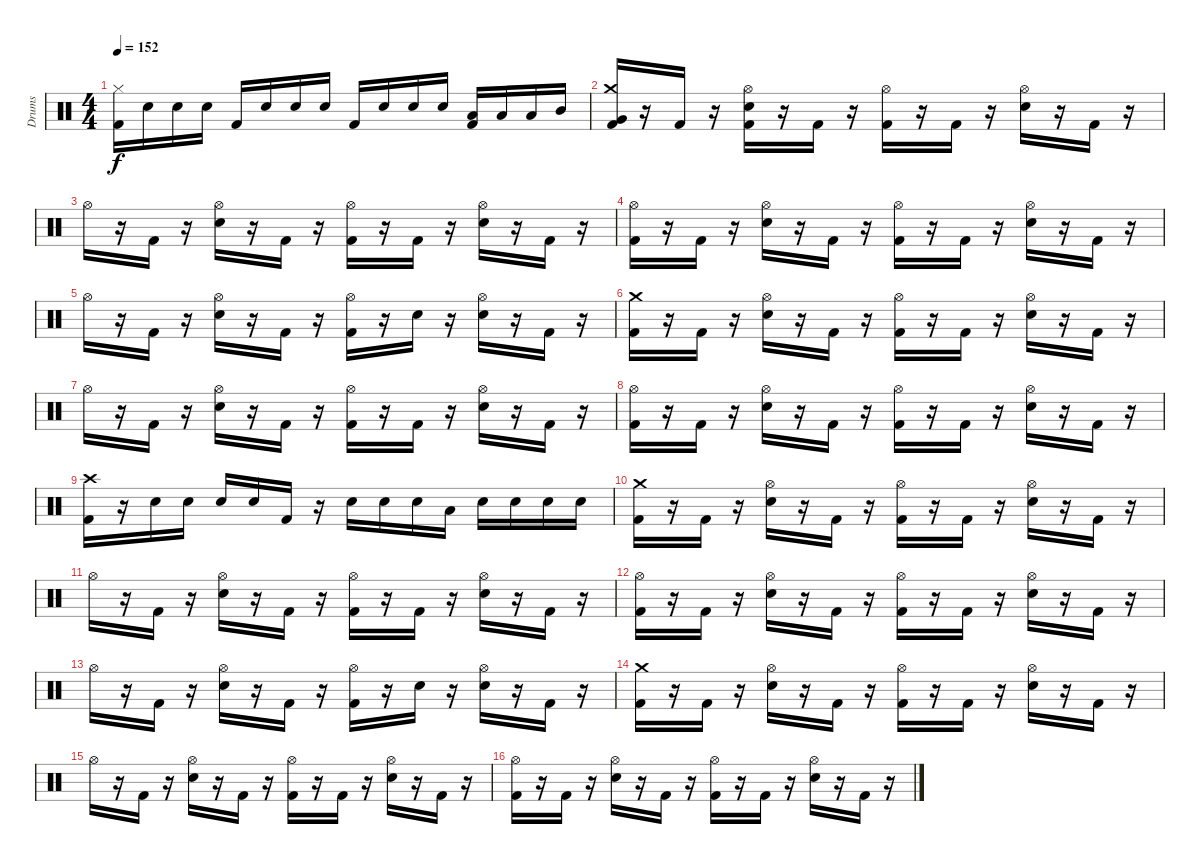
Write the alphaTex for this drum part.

\track ("Drums" "Drums") {instrument percussion}
\staff {score}
\articulation defaults
\ts (4 4)
\tempo 152
\clef neutral
\ks c
("Hi-Hat (closed)" "Kick (hit) 2").16{dy f} "Snare (hit) 2".16 "Snare (hit) 2".16 "Snare (hit) 2".16 "Kick (hit) 2".16 "Snare (hit) 2".16 "Snare (hit) 2".16 "Snare (hit) 2".16 "Kick (hit) 2".16 "Snare (hit) 2".16 "Snare (hit) 2".16 "Snare (hit) 2".16 ("Low Tom (hit)" "Kick (hit) 2").16 "Low Tom (hit)".16 "Low Tom (hit)".16 "Mid Tom (hit)".16 |
("Crash medium (hit)" "Very Low Tom (hit)" "Kick (hit) 2").16 r.16 "Kick (hit) 2".16 r.16 ("Hi-Hat (open)" "Snare (hit) 2" "Kick (hit) 2").16 r.16 "Kick (hit) 2".16 r.16 ("Hi-Hat (open)" "Kick (hit) 2").16 r.16 "Kick (hit) 2".16 r.16 ("Hi-Hat (open)" "Snare (hit) 2").16 r.16 "Kick (hit) 2".16 r.16 |
"Hi-Hat (open)".16 r.16 "Kick (hit) 2".16 r.16 ("Hi-Hat (open)" "Snare (hit) 2").16 r.16 "Kick (hit) 2".16 r.16 ("Hi-Hat (open)" "Kick (hit) 2").16 r.16 "Kick (hit) 2".16 r.16 ("Hi-Hat (open)" "Snare (hit) 2").16 r.16 "Kick (hit) 2".16 r.16 |
("Hi-Hat (open)" "Kick (hit) 2").16 r.16 "Kick (hit) 2".16 r.16 ("Hi-Hat (open)" "Snare (hit) 2").16 r.16 "Kick (hit) 2".16 r.16 ("Hi-Hat (open)" "Kick (hit) 2").16 r.16 "Kick (hit) 2".16 r.16 ("Hi-Hat (open)" "Snare (hit) 2").16 r.16 "Kick (hit) 2".16 r.16 |
"Hi-Hat (open)".16 r.16 "Kick (hit) 2".16 r.16 ("Hi-Hat (open)" "Snare (hit) 2").16 r.16 "Kick (hit) 2".16 r.16 ("Hi-Hat (open)" "Kick (hit) 2").16 r.16 "Snare (hit) 2".16 r.16 ("Hi-Hat (open)" "Snare (hit) 2").16 r.16 "Kick (hit) 2".16 r.16 |
("Crash medium (hit)" "Kick (hit) 2").16 r.16 "Kick (hit) 2".16 r.16 ("Hi-Hat (open)" "Snare (hit) 2").16 r.16 "Kick (hit) 2".16 r.16 ("Hi-Hat (open)" "Kick (hit) 2").16 r.16 "Kick (hit) 2".16 r.16 ("Hi-Hat (open)" "Snare (hit) 2").16 r.16 "Kick (hit) 2".16 r.16 |
"Hi-Hat (open)".16 r.16 "Kick (hit) 2".16 r.16 ("Hi-Hat (open)" "Snare (hit) 2").16 r.16 "Kick (hit) 2".16 r.16 ("Hi-Hat (open)" "Kick (hit) 2").16 r.16 "Kick (hit) 2".16 r.16 ("Hi-Hat (open)" "Snare (hit) 2").16 r.16 "Kick (hit) 2".16 r.16 |
("Hi-Hat (open)" "Kick (hit) 2").16 r.16 "Kick (hit) 2".16 r.16 ("Hi-Hat (open)" "Snare (hit) 2").16 r.16 "Kick (hit) 2".16 r.16 ("Hi-Hat (open)" "Kick (hit) 2").16 r.16 "Kick (hit) 2".16 r.16 ("Hi-Hat (open)" "Snare (hit) 2").16 r.16 "Kick (hit) 2".16 r.16 |
("Crash high (hit)" "Kick (hit) 2").16 r.16 "Snare (hit) 2".16 "Snare (hit) 2".16 "Snare (hit) 2".16 "Snare (hit) 2".16 "Kick (hit) 2".16 r.16 "Snare (hit) 2".16 "Snare (hit) 2".16 "Snare (hit) 2".16 "Low Tom (hit)".16 "Snare (hit) 2".16 "Snare (hit) 2".16 "Snare (hit) 2".16 "Snare (hit) 2".16 |
("Crash medium (hit)" "Kick (hit) 2").16 r.16 "Kick (hit) 2".16 r.16 ("Hi-Hat (open)" "Snare (hit) 2").16 r.16 "Kick (hit) 2".16 r.16 ("Hi-Hat (open)" "Kick (hit) 2").16 r.16 "Kick (hit) 2".16 r.16 ("Hi-Hat (open)" "Snare (hit) 2").16 r.16 "Kick (hit) 2".16 r.16 |
"Hi-Hat (open)".16 r.16 "Kick (hit) 2".16 r.16 ("Hi-Hat (open)" "Snare (hit) 2").16 r.16 "Kick (hit) 2".16 r.16 ("Hi-Hat (open)" "Kick (hit) 2").16 r.16 "Kick (hit) 2".16 r.16 ("Hi-Hat (open)" "Snare (hit) 2").16 r.16 "Kick (hit) 2".16 r.16 |
("Hi-Hat (open)" "Kick (hit) 2").16 r.16 "Kick (hit) 2".16 r.16 ("Hi-Hat (open)" "Snare (hit) 2").16 r.16 "Kick (hit) 2".16 r.16 ("Hi-Hat (open)" "Kick (hit) 2").16 r.16 "Kick (hit) 2".16 r.16 ("Hi-Hat (open)" "Snare (hit) 2").16 r.16 "Kick (hit) 2".16 r.16 |
"Hi-Hat (open)".16 r.16 "Kick (hit) 2".16 r.16 ("Hi-Hat (open)" "Snare (hit) 2").16 r.16 "Kick (hit) 2".16 r.16 ("Hi-Hat (open)" "Kick (hit) 2").16 r.16 "Snare (hit) 2".16 r.16 ("Hi-Hat (open)" "Snare (hit) 2").16 r.16 "Kick (hit) 2".16 r.16 |
("Crash medium (hit)" "Kick (hit) 2").16 r.16 "Kick (hit) 2".16 r.16 ("Hi-Hat (open)" "Snare (hit) 2").16 r.16 "Kick (hit) 2".16 r.16 ("Hi-Hat (open)" "Kick (hit) 2").16 r.16 "Kick (hit) 2".16 r.16 ("Hi-Hat (open)" "Snare (hit) 2").16 r.16 "Kick (hit) 2".16 r.16 |
"Hi-Hat (open)".16 r.16 "Kick (hit) 2".16 r.16 ("Hi-Hat (open)" "Snare (hit) 2").16 r.16 "Kick (hit) 2".16 r.16 ("Hi-Hat (open)" "Kick (hit) 2").16 r.16 "Kick (hit) 2".16 r.16 ("Hi-Hat (open)" "Snare (hit) 2").16 r.16 "Kick (hit) 2".16 r.16 |
("Hi-Hat (open)" "Kick (hit) 2").16 r.16 "Kick (hit) 2".16 r.16 ("Hi-Hat (open)" "Snare (hit) 2").16 r.16 "Kick (hit) 2".16 r.16 ("Hi-Hat (open)" "Kick (hit) 2").16 r.16 "Kick (hit) 2".16 r.16 ("Hi-Hat (open)" "Snare (hit) 2").16 r.16 "Kick (hit) 2".16 r.16
